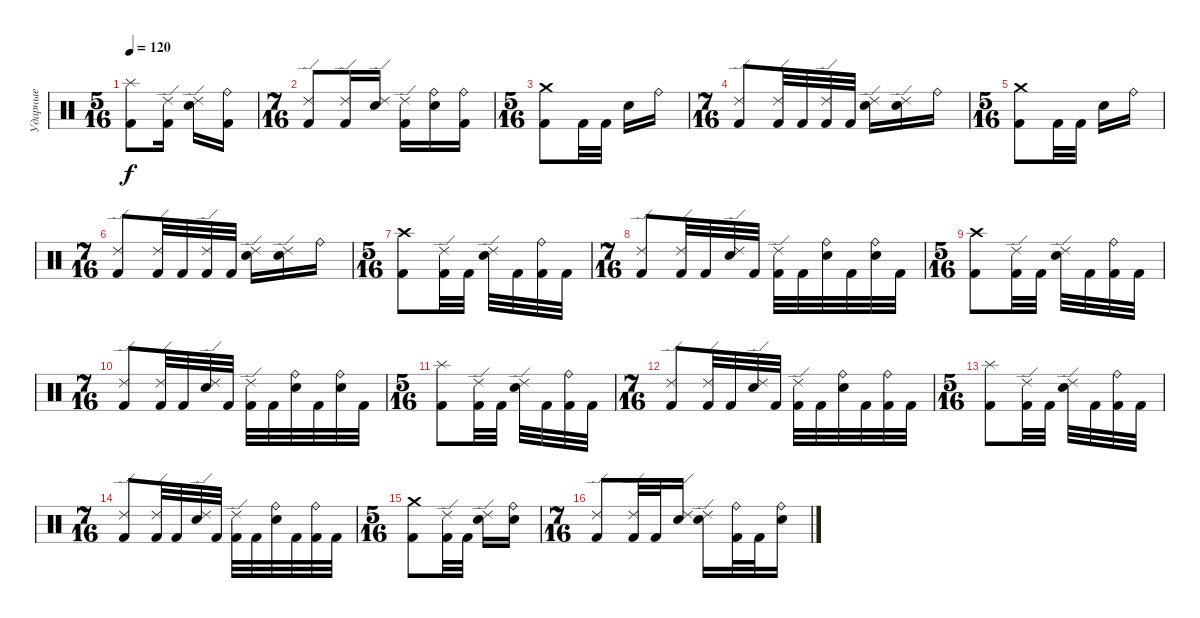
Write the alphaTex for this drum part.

\track ("Ударные" "Ударные") {instrument percussion}
\staff {score}
\articulation defaults
\ts (5 16)
\tempo 120
\clef neutral
\ks c
("Splash (hit)" "Kick (hit) 2").8{dy f} ("Ride (edge) 2" "Kick (hit) 2").16 ("Ride (edge) 2" "Electric Snare (hit)").16 ("Ride (bell)" "Kick (hit) 2").16 |
\ts (7 16)
("Ride (edge) 2" "Kick (hit) 2").8 ("Ride (edge) 2" "Kick (hit) 2").16 ("Ride (edge) 2" "Electric Snare (hit)").16 ("Ride (edge) 2" "Kick (hit) 2").16 ("Ride (bell)" "Electric Snare (hit)").16 ("Ride (bell)" "Kick (hit) 2").16 |
\ts (5 16)
("Kick (hit) 2" "Crash medium (hit)").8 "Kick (hit) 2".32 "Kick (hit) 2".32 "Electric Snare (hit)".16 "Ride (bell)".16 |
\ts (7 16)
("Ride (edge) 2" "Kick (hit) 2").8 ("Ride (edge) 2" "Kick (hit) 2").32 "Kick (hit) 2".32 ("Ride (edge) 2" "Kick (hit) 2").32 "Kick (hit) 2".32 ("Ride (edge) 2" "Electric Snare (hit)").16 ("Ride (edge) 2" "Electric Snare (hit)").16 "Ride (bell)".16 |
\ts (5 16)
("Kick (hit) 2" "Crash medium (hit)").8 "Kick (hit) 2".32 "Kick (hit) 2".32 "Electric Snare (hit)".16 "Ride (bell)".16 |
\ts (7 16)
("Ride (edge) 2" "Kick (hit) 2").8 ("Ride (edge) 2" "Kick (hit) 2").32 "Kick (hit) 2".32 ("Ride (edge) 2" "Kick (hit) 2").32 "Kick (hit) 2".32 ("Ride (edge) 2" "Electric Snare (hit)").16 ("Ride (edge) 2" "Electric Snare (hit)").16 "Ride (bell)".16 |
\ts (5 16)
("Crash high (hit)" "Kick (hit) 2").8 ("Ride (edge) 2" "Kick (hit) 2").32 "Kick (hit) 2".32 ("Ride (edge) 2" "Electric Snare (hit)").32 "Kick (hit) 2".32 ("Ride (bell)" "Kick (hit) 2").32 "Kick (hit) 2".32 |
\ts (7 16)
("Ride (edge) 2" "Kick (hit) 2").8 ("Ride (edge) 2" "Kick (hit) 2").32 "Kick (hit) 2".32 ("Ride (edge) 2" "Electric Snare (hit)").32 "Kick (hit) 2".32 ("Ride (edge) 2" "Kick (hit) 2").32 "Kick (hit) 2".32 ("Ride (bell)" "Electric Snare (hit)").32 "Kick (hit) 2".32 ("Ride (bell)" "Electric Snare (hit)").32 "Kick (hit) 2".32 |
\ts (5 16)
("Crash high (hit)" "Kick (hit) 2").8 ("Ride (edge) 2" "Kick (hit) 2").32 "Kick (hit) 2".32 ("Ride (edge) 2" "Electric Snare (hit)").32 "Kick (hit) 2".32 ("Ride (bell)" "Kick (hit) 2").32 "Kick (hit) 2".32 |
\ts (7 16)
("Ride (edge) 2" "Kick (hit) 2").8 ("Ride (edge) 2" "Kick (hit) 2").32 "Kick (hit) 2".32 ("Ride (edge) 2" "Electric Snare (hit)").32 "Kick (hit) 2".32 ("Ride (edge) 2" "Kick (hit) 2").32 "Kick (hit) 2".32 ("Ride (bell)" "Electric Snare (hit)").32 "Kick (hit) 2".32 ("Ride (bell)" "Electric Snare (hit)").32 "Kick (hit) 2".32 |
\ts (5 16)
("Splash (hit)" "Kick (hit) 2").8 ("Ride (edge) 2" "Kick (hit) 2").32 "Kick (hit) 2".32 ("Ride (edge) 2" "Electric Snare (hit)").32 "Kick (hit) 2".32 ("Ride (bell)" "Kick (hit) 2").32 "Kick (hit) 2".32 |
\ts (7 16)
("Ride (edge) 2" "Kick (hit) 2").8 ("Ride (edge) 2" "Kick (hit) 2").32 "Kick (hit) 2".32 ("Ride (edge) 2" "Electric Snare (hit)").32 "Kick (hit) 2".32 ("Ride (edge) 2" "Kick (hit) 2").32 "Kick (hit) 2".32 ("Ride (bell)" "Electric Snare (hit)").32 "Kick (hit) 2".32 ("Ride (bell)" "Kick (hit) 2").32 "Kick (hit) 2".32 |
\ts (5 16)
("Splash (hit)" "Kick (hit) 2").8 ("Ride (edge) 2" "Kick (hit) 2").32 "Kick (hit) 2".32 ("Ride (edge) 2" "Electric Snare (hit)").32 "Kick (hit) 2".32 ("Ride (bell)" "Kick (hit) 2").32 "Kick (hit) 2".32 |
\ts (7 16)
("Ride (edge) 2" "Kick (hit) 2").8 ("Ride (edge) 2" "Kick (hit) 2").32 "Kick (hit) 2".32 ("Ride (edge) 2" "Electric Snare (hit)").32 "Kick (hit) 2".32 ("Ride (edge) 2" "Kick (hit) 2").32 "Kick (hit) 2".32 ("Ride (bell)" "Electric Snare (hit)").32 "Kick (hit) 2".32 ("Ride (bell)" "Kick (hit) 2").32 "Kick (hit) 2".32 |
\ts (5 16)
("Crash medium (hit)" "Kick (hit) 2").8 ("Ride (edge) 2" "Kick (hit) 2").32 "Kick (hit) 2".32 ("Ride (edge) 2" "Electric Snare (hit)").16 ("Ride (bell)" "Electric Snare (hit)").16 |
\ts (7 16)
("Ride (edge) 2" "Kick (hit) 2").8 ("Ride (edge) 2" "Kick (hit) 2").32 "Kick (hit) 2".32 ("Ride (edge) 2" "Electric Snare (hit)").16 ("Ride (edge) 2" "Electric Snare (hit)").16 ("Ride (bell)" "Kick (hit) 2").32 "Kick (hit) 2".32 ("Ride (bell)" "Electric Snare (hit)").16
